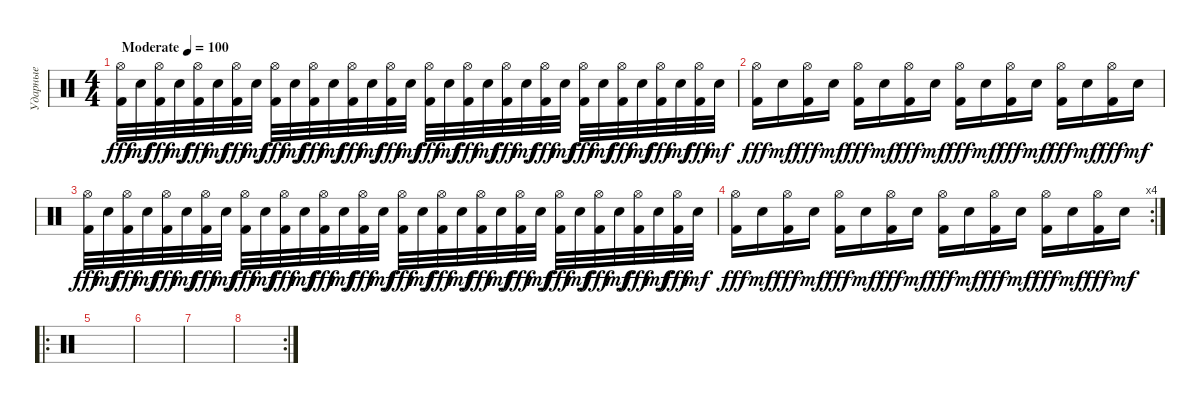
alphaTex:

\track ("Ударные" "Ударные") {mute instrument percussion}
\staff {score}
\articulation defaults
\ts (4 4)
\tempo (100 "Moderate")
\clef neutral
\ks c
("Hi-Hat (open)" "Kick (hit) 2").32{dy fff} "Electric Snare (hit)".32{dy mf} ("Hi-Hat (open)" "Kick (hit) 2").32{dy fff} "Electric Snare (hit)".32{dy mf} ("Hi-Hat (open)" "Kick (hit) 2").32{dy fff} "Electric Snare (hit)".32{dy mf} ("Hi-Hat (open)" "Kick (hit) 2").32{dy fff} "Electric Snare (hit)".32{dy mf} ("Hi-Hat (open)" "Kick (hit) 2").32{dy fff} "Electric Snare (hit)".32{dy mf} ("Hi-Hat (open)" "Kick (hit) 2").32{dy fff} "Electric Snare (hit)".32{dy mf} ("Hi-Hat (open)" "Kick (hit) 2").32{dy fff} "Electric Snare (hit)".32{dy mf} ("Hi-Hat (open)" "Kick (hit) 2").32{dy fff} "Electric Snare (hit)".32{dy mf} ("Hi-Hat (open)" "Kick (hit) 2").32{dy fff} "Electric Snare (hit)".32{dy mf} ("Hi-Hat (open)" "Kick (hit) 2").32{dy fff} "Electric Snare (hit)".32{dy mf} ("Hi-Hat (open)" "Kick (hit) 2").32{dy fff} "Electric Snare (hit)".32{dy mf} ("Hi-Hat (open)" "Kick (hit) 2").32{dy fff} "Electric Snare (hit)".32{dy mf} ("Hi-Hat (open)" "Kick (hit) 2").32{dy fff} "Electric Snare (hit)".32{dy mf} ("Hi-Hat (open)" "Kick (hit) 2").32{dy fff} "Electric Snare (hit)".32{dy mf} ("Hi-Hat (open)" "Kick (hit) 2").32{dy fff} "Electric Snare (hit)".32{dy mf} ("Hi-Hat (open)" "Kick (hit) 2").32{dy fff} "Electric Snare (hit)".32{dy mf} |
("Hi-Hat (open)" "Kick (hit) 2").16{dy fff} "Electric Snare (hit)".16{dy mf} ("Hi-Hat (open)" "Kick (hit) 2").16{dy fff} "Electric Snare (hit)".16{dy mf} ("Hi-Hat (open)" "Kick (hit) 2").16{dy fff} "Electric Snare (hit)".16{dy mf} ("Hi-Hat (open)" "Kick (hit) 2").16{dy fff} "Electric Snare (hit)".16{dy mf} ("Hi-Hat (open)" "Kick (hit) 2").16{dy fff} "Electric Snare (hit)".16{dy mf} ("Hi-Hat (open)" "Kick (hit) 2").16{dy fff} "Electric Snare (hit)".16{dy mf} ("Hi-Hat (open)" "Kick (hit) 2").16{dy fff} "Electric Snare (hit)".16{dy mf} ("Hi-Hat (open)" "Kick (hit) 2").16{dy fff} "Electric Snare (hit)".16{dy mf} |
("Hi-Hat (open)" "Kick (hit) 2").32{dy fff} "Electric Snare (hit)".32{dy mf} ("Hi-Hat (open)" "Kick (hit) 2").32{dy fff} "Electric Snare (hit)".32{dy mf} ("Hi-Hat (open)" "Kick (hit) 2").32{dy fff} "Electric Snare (hit)".32{dy mf} ("Hi-Hat (open)" "Kick (hit) 2").32{dy fff} "Electric Snare (hit)".32{dy mf} ("Hi-Hat (open)" "Kick (hit) 2").32{dy fff} "Electric Snare (hit)".32{dy mf} ("Hi-Hat (open)" "Kick (hit) 2").32{dy fff} "Electric Snare (hit)".32{dy mf} ("Hi-Hat (open)" "Kick (hit) 2").32{dy fff} "Electric Snare (hit)".32{dy mf} ("Hi-Hat (open)" "Kick (hit) 2").32{dy fff} "Electric Snare (hit)".32{dy mf} ("Hi-Hat (open)" "Kick (hit) 2").32{dy fff} "Electric Snare (hit)".32{dy mf} ("Hi-Hat (open)" "Kick (hit) 2").32{dy fff} "Electric Snare (hit)".32{dy mf} ("Hi-Hat (open)" "Kick (hit) 2").32{dy fff} "Electric Snare (hit)".32{dy mf} ("Hi-Hat (open)" "Kick (hit) 2").32{dy fff} "Electric Snare (hit)".32{dy mf} ("Hi-Hat (open)" "Kick (hit) 2").32{dy fff} "Electric Snare (hit)".32{dy mf} ("Hi-Hat (open)" "Kick (hit) 2").32{dy fff} "Electric Snare (hit)".32{dy mf} ("Hi-Hat (open)" "Kick (hit) 2").32{dy fff} "Electric Snare (hit)".32{dy mf} ("Hi-Hat (open)" "Kick (hit) 2").32{dy fff} "Electric Snare (hit)".32{dy mf} |
\rc 4
("Hi-Hat (open)" "Kick (hit) 2").16{dy fff} "Electric Snare (hit)".16{dy mf} ("Hi-Hat (open)" "Kick (hit) 2").16{dy fff} "Electric Snare (hit)".16{dy mf} ("Hi-Hat (open)" "Kick (hit) 2").16{dy fff} "Electric Snare (hit)".16{dy mf} ("Hi-Hat (open)" "Kick (hit) 2").16{dy fff} "Electric Snare (hit)".16{dy mf} ("Hi-Hat (open)" "Kick (hit) 2").16{dy fff} "Electric Snare (hit)".16{dy mf} ("Hi-Hat (open)" "Kick (hit) 2").16{dy fff} "Electric Snare (hit)".16{dy mf} ("Hi-Hat (open)" "Kick (hit) 2").16{dy fff} "Electric Snare (hit)".16{dy mf} ("Hi-Hat (open)" "Kick (hit) 2").16{dy fff} "Electric Snare (hit)".16{dy mf} |
\ro
|
|
|
\rc 2
